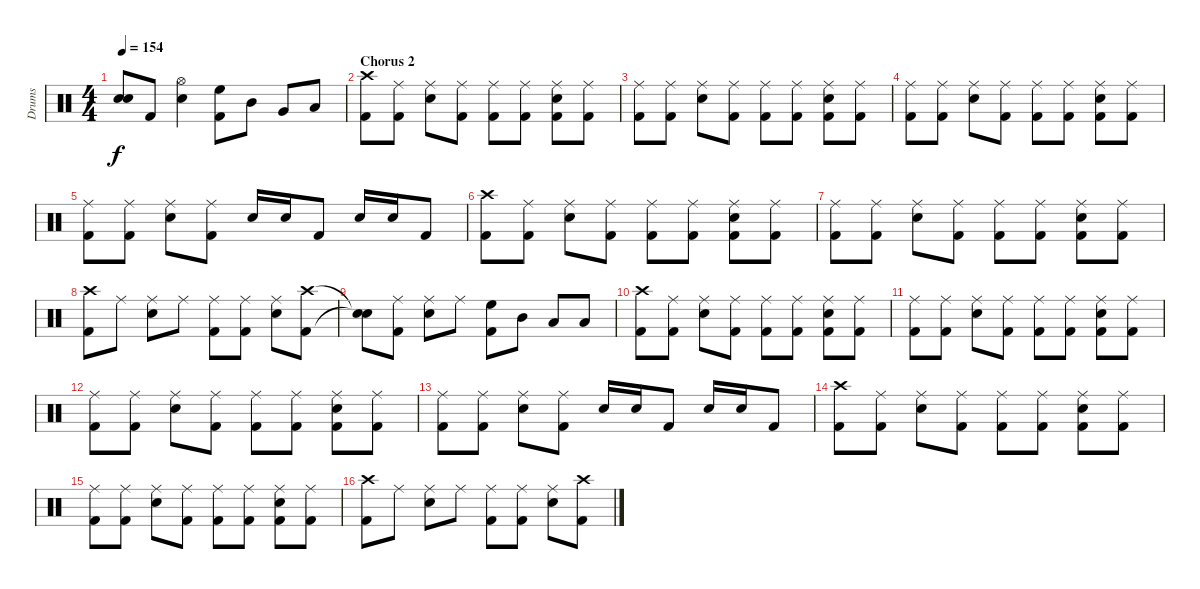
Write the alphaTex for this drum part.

\track ("Drums" "Drums") {instrument percussion}
\staff {score}
\articulation defaults
\ts (4 4)
\tempo 154
\clef neutral
\ks c
("Snare (hit)"{t} "Snare (hit)"{t}).8{dy f} "Kick (hit) 2".8 ("Hi-Hat (open)" "Electric Snare (hit)").4 ("High Floor Tom (hit)" "Kick (hit) 2").8 "Mid Tom (hit)".8 "Very Low Tom (hit)".8 "Low Floor Tom (hit)".8 |
\section ("" "Chorus 2")
("Crash high (hit)" "Kick (hit) 2").8 ("Ride (middle)" "Kick (hit) 2").8 ("Electric Snare (hit)" "Ride (middle)").8 ("Ride (middle)" "Kick (hit) 2").8 ("Ride (middle)" "Kick (hit) 2").8 ("Ride (middle)" "Kick (hit) 2").8 ("Electric Snare (hit)" "Ride (middle)" "Kick (hit) 2").8 ("Ride (middle)" "Kick (hit) 2").8 |
("Ride (middle)" "Kick (hit) 2").8 ("Ride (middle)" "Kick (hit) 2").8 ("Electric Snare (hit)" "Ride (middle)").8 ("Ride (middle)" "Kick (hit) 2").8 ("Ride (middle)" "Kick (hit) 2").8 ("Ride (middle)" "Kick (hit) 2").8 ("Electric Snare (hit)" "Ride (middle)" "Kick (hit) 2").8 ("Ride (middle)" "Kick (hit) 2").8 |
("Ride (middle)" "Kick (hit) 2").8 ("Ride (middle)" "Kick (hit) 2").8 ("Electric Snare (hit)" "Ride (middle)").8 ("Ride (middle)" "Kick (hit) 2").8 ("Ride (middle)" "Kick (hit) 2").8 ("Ride (middle)" "Kick (hit) 2").8 ("Electric Snare (hit)" "Ride (middle)" "Kick (hit) 2").8 ("Ride (middle)" "Kick (hit) 2").8 |
("Ride (middle)" "Kick (hit) 2").8 ("Ride (middle)" "Kick (hit) 2").8 ("Electric Snare (hit)" "Ride (middle)").8 ("Ride (middle)" "Kick (hit) 2").8 "Electric Snare (hit)".16 "Electric Snare (hit)".16 "Kick (hit) 2".8 "Electric Snare (hit)".16 "Electric Snare (hit)".16 "Kick (hit) 2".8 |
("Crash high (hit)" "Kick (hit) 2").8 ("Ride (middle)" "Kick (hit) 2").8 ("Electric Snare (hit)" "Ride (middle)").8 ("Ride (middle)" "Kick (hit) 2").8 ("Ride (middle)" "Kick (hit) 2").8 ("Ride (middle)" "Kick (hit) 2").8 ("Electric Snare (hit)" "Ride (middle)" "Kick (hit) 2").8 ("Ride (middle)" "Kick (hit) 2").8 |
("Ride (middle)" "Kick (hit) 2").8 ("Ride (middle)" "Kick (hit) 2").8 ("Electric Snare (hit)" "Ride (middle)").8 ("Ride (middle)" "Kick (hit) 2").8 ("Ride (middle)" "Kick (hit) 2").8 ("Ride (middle)" "Kick (hit) 2").8 ("Electric Snare (hit)" "Ride (middle)" "Kick (hit) 2").8 ("Ride (middle)" "Kick (hit) 2").8 |
("Crash high (hit)" "Kick (hit) 2").8 "Ride (middle)".8 ("Ride (middle)" "Electric Snare (hit)").8 "Ride (middle)".8 ("Ride (middle)" "Kick (hit) 2").8 ("Ride (middle)" "Kick (hit) 2").8 ("Ride (middle)" "Electric Snare (hit)").8 ("Crash high (hit)" "Kick (hit) 2").8 |
("Snare (hit)"{t} "Snare (hit)"{t}).8 ("Ride (middle)" "Kick (hit) 2").8 ("Ride (middle)" "Electric Snare (hit)").8 "Ride (middle)".8 ("High Floor Tom (hit)" "Kick (hit) 2").8 "Mid Tom (hit)".8 "Low Tom (hit)".8 "Low Floor Tom (hit)".8 |
("Crash high (hit)" "Kick (hit) 2").8 ("Ride (middle)" "Kick (hit) 2").8 ("Electric Snare (hit)" "Ride (middle)").8 ("Ride (middle)" "Kick (hit) 2").8 ("Ride (middle)" "Kick (hit) 2").8 ("Ride (middle)" "Kick (hit) 2").8 ("Electric Snare (hit)" "Ride (middle)" "Kick (hit) 2").8 ("Ride (middle)" "Kick (hit) 2").8 |
("Ride (middle)" "Kick (hit) 2").8 ("Ride (middle)" "Kick (hit) 2").8 ("Electric Snare (hit)" "Ride (middle)").8 ("Ride (middle)" "Kick (hit) 2").8 ("Ride (middle)" "Kick (hit) 2").8 ("Ride (middle)" "Kick (hit) 2").8 ("Electric Snare (hit)" "Ride (middle)" "Kick (hit) 2").8 ("Ride (middle)" "Kick (hit) 2").8 |
("Ride (middle)" "Kick (hit) 2").8 ("Ride (middle)" "Kick (hit) 2").8 ("Electric Snare (hit)" "Ride (middle)").8 ("Ride (middle)" "Kick (hit) 2").8 ("Ride (middle)" "Kick (hit) 2").8 ("Ride (middle)" "Kick (hit) 2").8 ("Electric Snare (hit)" "Ride (middle)" "Kick (hit) 2").8 ("Ride (middle)" "Kick (hit) 2").8 |
("Ride (middle)" "Kick (hit) 2").8 ("Ride (middle)" "Kick (hit) 2").8 ("Electric Snare (hit)" "Ride (middle)").8 ("Ride (middle)" "Kick (hit) 2").8 "Electric Snare (hit)".16 "Electric Snare (hit)".16 "Kick (hit) 2".8 "Electric Snare (hit)".16 "Electric Snare (hit)".16 "Kick (hit) 2".8 |
("Crash high (hit)" "Kick (hit) 2").8 ("Ride (middle)" "Kick (hit) 2").8 ("Electric Snare (hit)" "Ride (middle)").8 ("Ride (middle)" "Kick (hit) 2").8 ("Ride (middle)" "Kick (hit) 2").8 ("Ride (middle)" "Kick (hit) 2").8 ("Electric Snare (hit)" "Ride (middle)" "Kick (hit) 2").8 ("Ride (middle)" "Kick (hit) 2").8 |
("Ride (middle)" "Kick (hit) 2").8 ("Ride (middle)" "Kick (hit) 2").8 ("Electric Snare (hit)" "Ride (middle)").8 ("Ride (middle)" "Kick (hit) 2").8 ("Ride (middle)" "Kick (hit) 2").8 ("Ride (middle)" "Kick (hit) 2").8 ("Electric Snare (hit)" "Ride (middle)" "Kick (hit) 2").8 ("Ride (middle)" "Kick (hit) 2").8 |
("Crash high (hit)" "Kick (hit) 2").8 "Ride (middle)".8 ("Ride (middle)" "Electric Snare (hit)").8 "Ride (middle)".8 ("Ride (middle)" "Kick (hit) 2").8 ("Ride (middle)" "Kick (hit) 2").8 ("Ride (middle)" "Electric Snare (hit)").8 ("Crash high (hit)" "Kick (hit) 2").8
